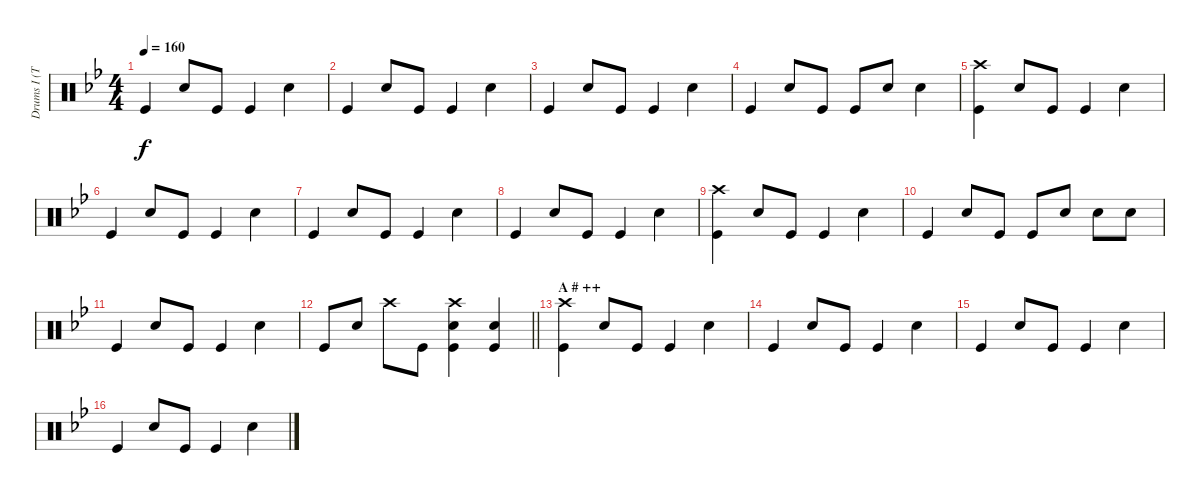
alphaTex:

\track ("Drums I (Tainaka Ritsu)" "Drums I (T") {instrument percussion}
\staff {score}
\articulation defaults
\ts (4 4)
\tempo 160
\clef neutral
\ks bb "Kick (hit)".4{dy f} "Snare (hit) 2".8 "Kick (hit)".8 "Kick (hit)".4 "Snare (hit) 2".4
|
"Kick (hit)".4 "Snare (hit) 2".8 "Kick (hit)".8 "Kick (hit)".4 "Snare (hit) 2".4 |
"Kick (hit)".4 "Snare (hit) 2".8 "Kick (hit)".8 "Kick (hit)".4 "Snare (hit) 2".4 |
"Kick (hit)".4 "Snare (hit) 2".8 "Kick (hit)".8 "Kick (hit)".8 "Snare (hit) 2".8 "Snare (hit) 2".4 |
("Crash high (hit)" "Kick (hit)").4 "Snare (hit) 2".8 "Kick (hit)".8 "Kick (hit)".4 "Snare (hit) 2".4 |
"Kick (hit)".4 "Snare (hit) 2".8 "Kick (hit)".8 "Kick (hit)".4 "Snare (hit) 2".4 |
"Kick (hit)".4 "Snare (hit) 2".8 "Kick (hit)".8 "Kick (hit)".4 "Snare (hit) 2".4 |
"Kick (hit)".4 "Snare (hit) 2".8 "Kick (hit)".8 "Kick (hit)".4 "Snare (hit) 2".4 |
("Crash high (hit)" "Kick (hit)").4 "Snare (hit) 2".8 "Kick (hit)".8 "Kick (hit)".4 "Snare (hit) 2".4 |
"Kick (hit)".4 "Snare (hit) 2".8 "Kick (hit)".8 "Kick (hit)".8 "Snare (hit) 2".8 "Snare (hit) 2".8 "Snare (hit) 2".8 |
"Kick (hit)".4 "Snare (hit) 2".8 "Kick (hit)".8 "Kick (hit)".4 "Snare (hit) 2".4 |
\barLineRight lightlight "Kick (hit)".8 "Snare (hit) 2".8 "Crash high (hit)".8 "Kick (hit)".8
("Crash high (hit)" "Snare (hit) 2" "Kick (hit)").4 ("Snare (hit) 2" "Kick (hit)").4 |
\section ("" "A # ++")
("Crash high (hit)" "Kick (hit)").4 "Snare (hit) 2".8 "Kick (hit)".8 "Kick (hit)".4 "Snare (hit) 2".4 |
"Kick (hit)".4 "Snare (hit) 2".8 "Kick (hit)".8 "Kick (hit)".4 "Snare (hit) 2".4 |
"Kick (hit)".4 "Snare (hit) 2".8 "Kick (hit)".8 "Kick (hit)".4 "Snare (hit) 2".4 |
"Kick (hit)".4 "Snare (hit) 2".8 "Kick (hit)".8 "Kick (hit)".4 "Snare (hit) 2".4
